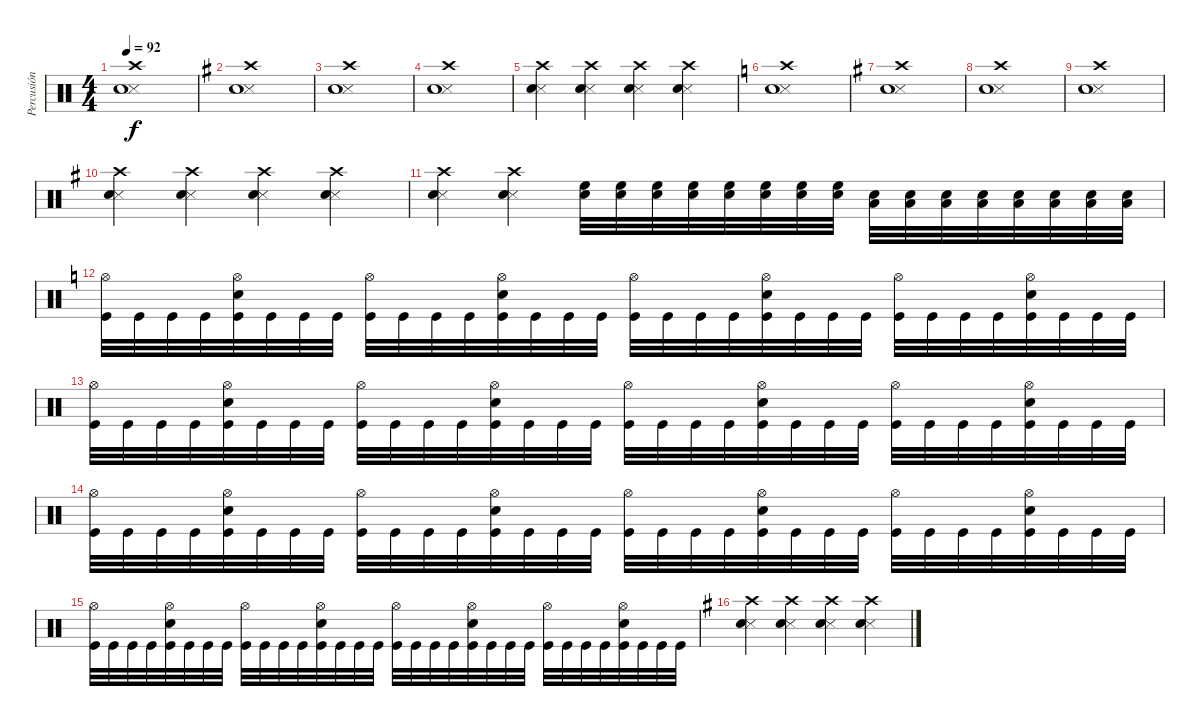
\track ("Percusión" "Percusión") {instrument percussion}
\staff {score}
\articulation defaults
\ts (4 4)
\tempo 92
\clef neutral
\ks c
("Snare (side stick) 3" "Snare (hit) 2" "Crash high (hit)").1{dy f} |
\ks g
("Snare (side stick) 3" "Snare (hit) 2" "Crash high (hit)").1 |
("Snare (side stick) 3" "Snare (hit) 2" "Crash high (hit)").1 |
("Snare (side stick) 3" "Snare (hit) 2" "Crash high (hit)").1 |
("Snare (side stick) 3" "Snare (hit) 2" "Crash high (hit)").4 ("Snare (side stick) 3" "Snare (hit) 2" "Crash high (hit)").4 ("Snare (side stick) 3" "Snare (hit) 2" "Crash high (hit)").4 ("Snare (side stick) 3" "Snare (hit) 2" "Crash high (hit)").4 |
\ks c
("Snare (side stick) 3" "Snare (hit) 2" "Crash high (hit)").1 |
\ks g
("Snare (side stick) 3" "Snare (hit) 2" "Crash high (hit)").1 |
("Snare (side stick) 3" "Snare (hit) 2" "Crash high (hit)").1 |
("Snare (side stick) 3" "Snare (hit) 2" "Crash high (hit)").1 |
("Snare (side stick) 3" "Snare (hit) 2" "Crash high (hit)").4 ("Snare (side stick) 3" "Snare (hit) 2" "Crash high (hit)").4 ("Snare (side stick) 3" "Snare (hit) 2" "Crash high (hit)").4 ("Snare (side stick) 3" "Snare (hit) 2" "Crash high (hit)").4 |
("Snare (side stick) 3" "Snare (hit) 2" "Crash high (hit)").4 ("Snare (side stick) 3" "Snare (hit) 2" "Crash high (hit)").4 ("High Floor Tom (hit)" "Snare (hit) 2").32 ("High Floor Tom (hit)" "Snare (hit) 2").32 ("High Floor Tom (hit)" "Snare (hit) 2").32 ("High Floor Tom (hit)" "Snare (hit) 2").32 ("High Floor Tom (hit)" "Snare (hit) 2").32 ("High Floor Tom (hit)" "Snare (hit) 2").32 ("High Floor Tom (hit)" "Snare (hit) 2").32 ("High Floor Tom (hit)" "Snare (hit) 2").32 ("Low Tom (hit)" "Snare (hit) 2").32 ("Low Tom (hit)" "Snare (hit) 2").32 ("Low Tom (hit)" "Snare (hit) 2").32 ("Low Tom (hit)" "Snare (hit) 2").32 ("Low Tom (hit)" "Snare (hit) 2").32 ("Low Tom (hit)" "Snare (hit) 2").32 ("Low Tom (hit)" "Snare (hit) 2").32 ("Low Tom (hit)" "Snare (hit) 2").32 |
\ks c
("Hi-Hat (open)" "Kick (hit)").32 "Kick (hit)".32 "Kick (hit)".32 "Kick (hit)".32 ("Snare (hit) 2" "Hi-Hat (open)" "Kick (hit)").32 "Kick (hit)".32 "Kick (hit)".32 "Kick (hit)".32 ("Hi-Hat (open)" "Kick (hit)").32 "Kick (hit)".32 "Kick (hit)".32 "Kick (hit)".32 ("Snare (hit) 2" "Hi-Hat (open)" "Kick (hit)").32 "Kick (hit)".32 "Kick (hit)".32 "Kick (hit)".32 ("Hi-Hat (open)" "Kick (hit)").32 "Kick (hit)".32 "Kick (hit)".32 "Kick (hit)".32 ("Snare (hit) 2" "Hi-Hat (open)" "Kick (hit)").32 "Kick (hit)".32 "Kick (hit)".32 "Kick (hit)".32 ("Hi-Hat (open)" "Kick (hit)").32 "Kick (hit)".32 "Kick (hit)".32 "Kick (hit)".32 ("Snare (hit) 2" "Hi-Hat (open)" "Kick (hit)").32 "Kick (hit)".32 "Kick (hit)".32 "Kick (hit)".32 |
("Hi-Hat (open)" "Kick (hit)").32 "Kick (hit)".32 "Kick (hit)".32 "Kick (hit)".32 ("Snare (hit) 2" "Hi-Hat (open)" "Kick (hit)").32 "Kick (hit)".32 "Kick (hit)".32 "Kick (hit)".32 ("Hi-Hat (open)" "Kick (hit)").32 "Kick (hit)".32 "Kick (hit)".32 "Kick (hit)".32 ("Snare (hit) 2" "Hi-Hat (open)" "Kick (hit)").32 "Kick (hit)".32 "Kick (hit)".32 "Kick (hit)".32 ("Hi-Hat (open)" "Kick (hit)").32 "Kick (hit)".32 "Kick (hit)".32 "Kick (hit)".32 ("Snare (hit) 2" "Hi-Hat (open)" "Kick (hit)").32 "Kick (hit)".32 "Kick (hit)".32 "Kick (hit)".32 ("Hi-Hat (open)" "Kick (hit)").32 "Kick (hit)".32 "Kick (hit)".32 "Kick (hit)".32 ("Snare (hit) 2" "Hi-Hat (open)" "Kick (hit)").32 "Kick (hit)".32 "Kick (hit)".32 "Kick (hit)".32 |
("Hi-Hat (open)" "Kick (hit)").32 "Kick (hit)".32 "Kick (hit)".32 "Kick (hit)".32 ("Snare (hit) 2" "Hi-Hat (open)" "Kick (hit)").32 "Kick (hit)".32 "Kick (hit)".32 "Kick (hit)".32 ("Hi-Hat (open)" "Kick (hit)").32 "Kick (hit)".32 "Kick (hit)".32 "Kick (hit)".32 ("Snare (hit) 2" "Hi-Hat (open)" "Kick (hit)").32 "Kick (hit)".32 "Kick (hit)".32 "Kick (hit)".32 ("Hi-Hat (open)" "Kick (hit)").32 "Kick (hit)".32 "Kick (hit)".32 "Kick (hit)".32 ("Snare (hit) 2" "Hi-Hat (open)" "Kick (hit)").32 "Kick (hit)".32 "Kick (hit)".32 "Kick (hit)".32 ("Hi-Hat (open)" "Kick (hit)").32 "Kick (hit)".32 "Kick (hit)".32 "Kick (hit)".32 ("Snare (hit) 2" "Hi-Hat (open)" "Kick (hit)").32 "Kick (hit)".32 "Kick (hit)".32 "Kick (hit)".32 |
("Hi-Hat (open)" "Kick (hit)").32 "Kick (hit)".32 "Kick (hit)".32 "Kick (hit)".32 ("Snare (hit) 2" "Hi-Hat (open)" "Kick (hit)").32 "Kick (hit)".32 "Kick (hit)".32 "Kick (hit)".32 ("Hi-Hat (open)" "Kick (hit)").32 "Kick (hit)".32 "Kick (hit)".32 "Kick (hit)".32 ("Snare (hit) 2" "Hi-Hat (open)" "Kick (hit)").32 "Kick (hit)".32 "Kick (hit)".32 "Kick (hit)".32 ("Hi-Hat (open)" "Kick (hit)").32 "Kick (hit)".32 "Kick (hit)".32 "Kick (hit)".32 ("Snare (hit) 2" "Hi-Hat (open)" "Kick (hit)").32 "Kick (hit)".32 "Kick (hit)".32 "Kick (hit)".32 ("Hi-Hat (open)" "Kick (hit)").32 "Kick (hit)".32 "Kick (hit)".32 "Kick (hit)".32 ("Snare (hit) 2" "Hi-Hat (open)" "Kick (hit)").32 "Kick (hit)".32 "Kick (hit)".32 "Kick (hit)".32 |
\ks g
("Snare (side stick) 3" "Snare (hit) 2" "Crash high (hit)").4 ("Snare (side stick) 3" "Snare (hit) 2" "Crash high (hit)").4 ("Snare (side stick) 3" "Snare (hit) 2" "Crash high (hit)").4 ("Snare (side stick) 3" "Snare (hit) 2" "Crash high (hit)").4
